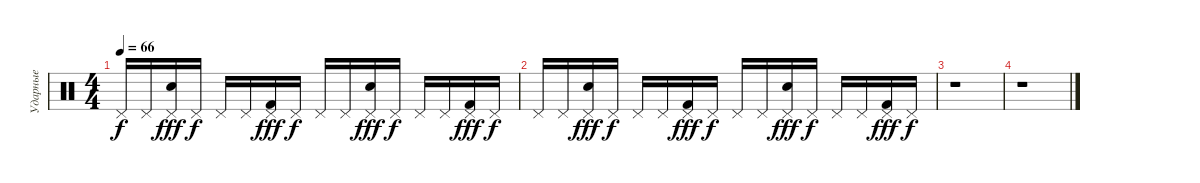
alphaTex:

\track ("Ударные" "Ударные") {instrument percussion}
\staff {score}
\articulation defaults
\ts (4 4)
\tempo 66
\clef neutral
\ks c "Pedal Hi-Hat (hit)".16{dy f} "Pedal Hi-Hat (hit)".16
("Snare (hit) 2" "Pedal Hi-Hat (hit)").16{dy fff} "Pedal Hi-Hat (hit)".16{dy f} "Pedal Hi-Hat (hit)".16 "Pedal Hi-Hat (hit)".16 ("Kick (hit) 2" "Pedal Hi-Hat (hit)").16{dy fff} "Pedal Hi-Hat (hit)".16{dy f} "Pedal Hi-Hat (hit)".16 "Pedal Hi-Hat (hit)".16 ("Snare (hit) 2" "Pedal Hi-Hat (hit)").16{dy fff} "Pedal Hi-Hat (hit)".16{dy f} "Pedal Hi-Hat (hit)".16 "Pedal Hi-Hat (hit)".16 ("Kick (hit) 2" "Pedal Hi-Hat (hit)").16{dy fff} "Pedal Hi-Hat (hit)".16{dy f} |
"Pedal Hi-Hat (hit)".16 "Pedal Hi-Hat (hit)".16 ("Snare (hit) 2" "Pedal Hi-Hat (hit)").16{dy fff} "Pedal Hi-Hat (hit)".16{dy f} "Pedal Hi-Hat (hit)".16 "Pedal Hi-Hat (hit)".16 ("Kick (hit) 2" "Pedal Hi-Hat (hit)").16{dy fff} "Pedal Hi-Hat (hit)".16{dy f} "Pedal Hi-Hat (hit)".16 "Pedal Hi-Hat (hit)".16 ("Snare (hit) 2" "Pedal Hi-Hat (hit)").16{dy fff} "Pedal Hi-Hat (hit)".16{dy f} "Pedal Hi-Hat (hit)".16 "Pedal Hi-Hat (hit)".16 ("Kick (hit) 2" "Pedal Hi-Hat (hit)").16{dy fff} "Pedal Hi-Hat (hit)".16{dy f} |
r.1 |
r.1
